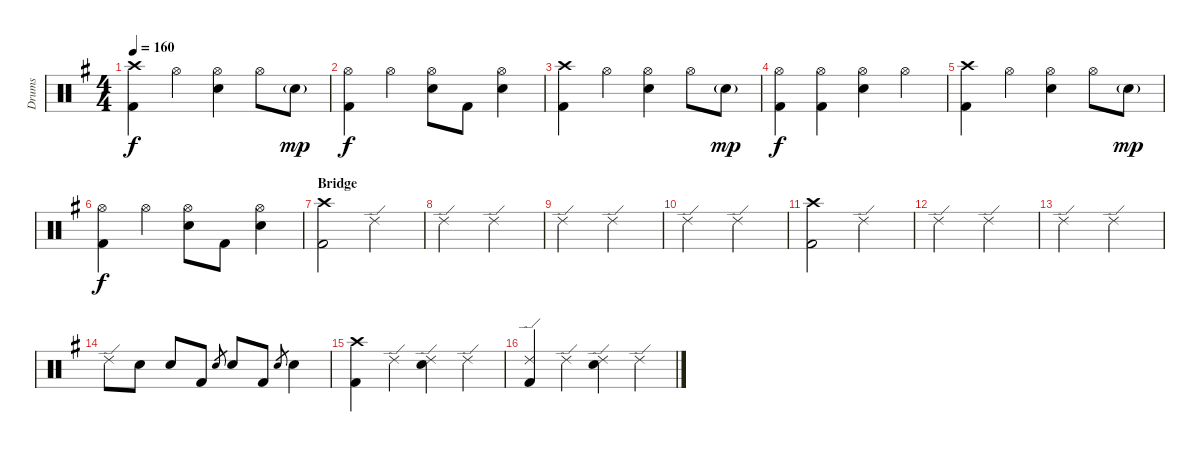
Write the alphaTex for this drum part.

\track ("Drums" "Drums") {instrument percussion}
\staff {score}
\articulation defaults
\ts (4 4)
\tempo 160
\clef neutral
\ks g
("Crash high (hit)" "Kick (hit) 2").4{dy f} "Hi-Hat (open)".4 ("Hi-Hat (open)" "Electric Snare (hit)").4 "Hi-Hat (open)".8 "Electric Snare (hit)"{g}.8{dy mp} |
("Hi-Hat (open)" "Kick (hit) 2").4{dy f} "Hi-Hat (open)".4 ("Hi-Hat (open)" "Electric Snare (hit)").8 "Kick (hit) 2".8 ("Hi-Hat (open)" "Electric Snare (hit)").4 |
("Crash high (hit)" "Kick (hit) 2").4 "Hi-Hat (open)".4 ("Hi-Hat (open)" "Electric Snare (hit)").4 "Hi-Hat (open)".8 "Electric Snare (hit)"{g}.8{dy mp} |
("Hi-Hat (open)" "Kick (hit) 2").4{dy f} ("Hi-Hat (open)" "Kick (hit) 2").4 ("Hi-Hat (open)" "Electric Snare (hit)").4 "Hi-Hat (open)".4 |
("Crash high (hit)" "Kick (hit) 2").4 "Hi-Hat (open)".4 ("Hi-Hat (open)" "Electric Snare (hit)").4 "Hi-Hat (open)".8 "Electric Snare (hit)"{g}.8{dy mp} |
("Hi-Hat (open)" "Kick (hit) 2").4{dy f} "Hi-Hat (open)".4 ("Hi-Hat (open)" "Electric Snare (hit)").8 "Kick (hit) 2".8 ("Hi-Hat (open)" "Electric Snare (hit)").4 |
\section ("" "Bridge")
("Crash high (hit)" "Kick (hit) 2").2 "Ride (edge) 2".2 |
"Ride (edge) 2".2 "Ride (edge) 2".2 |
"Ride (edge) 2".2 "Ride (edge) 2".2 |
"Ride (edge) 2".2 "Ride (edge) 2".2 |
("Crash high (hit)" "Kick (hit) 2").2 "Ride (edge) 2".2 |
"Ride (edge) 2".2 "Ride (edge) 2".2 |
"Ride (edge) 2".2 "Ride (edge) 2".2 |
"Ride (edge) 2".8 "Electric Snare (hit)".8 "Electric Snare (hit)".8 "Kick (hit) 2".8 "Electric Snare (hit)".8{gr} "Electric Snare (hit)".8 "Kick (hit) 2".8 "Electric Snare (hit)".8{gr} "Electric Snare (hit)".4 |
("Crash high (hit)" "Kick (hit) 2").4 "Ride (edge) 2".4 ("Ride (edge) 2" "Electric Snare (hit)").4 "Ride (edge) 2".4 |
("Ride (edge) 2" "Kick (hit) 2").4 "Ride (edge) 2".4 ("Ride (edge) 2" "Electric Snare (hit)").4 "Ride (edge) 2".4
